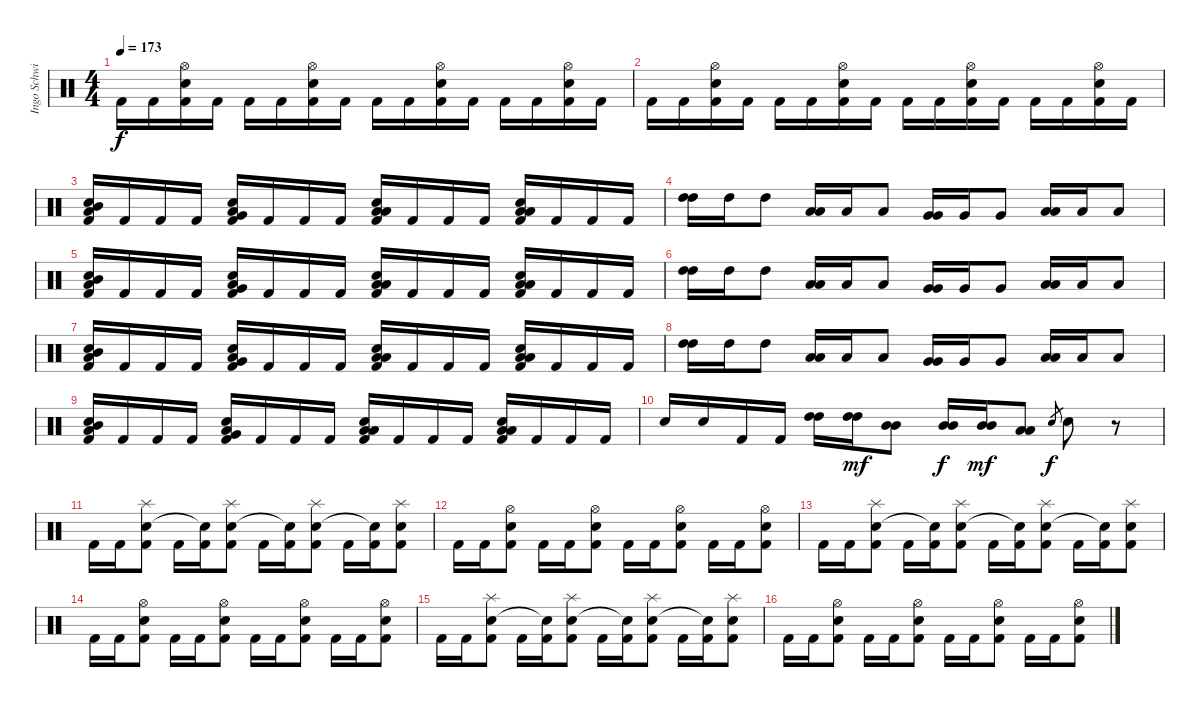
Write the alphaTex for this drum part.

\track ("Ingo Schwichtenberg" "Ingo Schwi") {instrument percussion}
\staff {score}
\articulation defaults
\ts (4 4)
\tempo 173
\clef neutral
\ks c "Kick (hit) 2".16{dy f} "Kick (hit) 2".16
("Kick (hit) 2" "Snare (hit) 2" "Hi-Hat (open)").16 "Kick (hit) 2".16 "Kick (hit) 2".16 "Kick (hit) 2".16 ("Kick (hit) 2" "Snare (hit) 2" "Hi-Hat (open)").16 "Kick (hit) 2".16 "Kick (hit) 2".16 "Kick (hit) 2".16 ("Kick (hit) 2" "Snare (hit) 2" "Hi-Hat (open)").16 "Kick (hit) 2".16 "Kick (hit) 2".16 "Kick (hit) 2".16 ("Kick (hit) 2" "Snare (hit) 2" "Hi-Hat (open)").16 "Kick (hit) 2".16 |
"Kick (hit) 2".16 "Kick (hit) 2".16 ("Kick (hit) 2" "Snare (hit) 2" "Hi-Hat (open)").16 "Kick (hit) 2".16 "Kick (hit) 2".16 "Kick (hit) 2".16 ("Kick (hit) 2" "Snare (hit) 2" "Hi-Hat (open)").16 "Kick (hit) 2".16 "Kick (hit) 2".16 "Kick (hit) 2".16 ("Kick (hit) 2" "Snare (hit) 2" "Hi-Hat (open)").16 "Kick (hit) 2".16 "Kick (hit) 2".16 "Kick (hit) 2".16 ("Kick (hit) 2" "Snare (hit) 2" "Hi-Hat (open)").16 "Kick (hit) 2".16 |
("Kick (hit) 2" "Low Tom (hit)" "Mid Tom (hit)" "Snare (hit) 2").16 "Kick (hit) 2".16 "Kick (hit) 2".16 "Kick (hit) 2".16 ("Kick (hit) 2" "Low Tom (hit)" "Very Low Tom (hit)" "Snare (hit) 2").16 "Kick (hit) 2".16 "Kick (hit) 2".16 "Kick (hit) 2".16 ("Kick (hit) 2" "Low Tom (hit)" "Low Floor Tom (hit)" "Snare (hit) 2").16 "Kick (hit) 2".16 "Kick (hit) 2".16 "Kick (hit) 2".16 ("Kick (hit) 2" "Low Tom (hit)" "Low Tom (hit)" "Snare (hit) 2").16 "Kick (hit) 2".16 "Kick (hit) 2".16 "Kick (hit) 2".16 |
("High Tom (hit)" "High Tom (hit)").16 "High Tom (hit)".16 "High Tom (hit)".8 ("Low Tom (hit)" "Low Tom (hit)").16 "Low Tom (hit)".16 "Low Tom (hit)".8 ("Very Low Tom (hit)" "Very Low Tom (hit)").16 "Very Low Tom (hit)".16 "Very Low Tom (hit)".8 ("Low Floor Tom (hit)" "Low Floor Tom (hit)").16 "Low Floor Tom (hit)".16 "Low Floor Tom (hit)".8 |
("Kick (hit) 2" "Low Tom (hit)" "Mid Tom (hit)" "Snare (hit) 2").16 "Kick (hit) 2".16 "Kick (hit) 2".16 "Kick (hit) 2".16 ("Kick (hit) 2" "Low Tom (hit)" "Very Low Tom (hit)" "Snare (hit) 2").16 "Kick (hit) 2".16 "Kick (hit) 2".16 "Kick (hit) 2".16 ("Kick (hit) 2" "Low Tom (hit)" "Low Floor Tom (hit)" "Snare (hit) 2").16 "Kick (hit) 2".16 "Kick (hit) 2".16 "Kick (hit) 2".16 ("Kick (hit) 2" "Low Tom (hit)" "Low Tom (hit)" "Snare (hit) 2").16 "Kick (hit) 2".16 "Kick (hit) 2".16 "Kick (hit) 2".16 |
("High Tom (hit)" "High Tom (hit)").16 "High Tom (hit)".16 "High Tom (hit)".8 ("Low Tom (hit)" "Low Tom (hit)").16 "Low Tom (hit)".16 "Low Tom (hit)".8 ("Very Low Tom (hit)" "Very Low Tom (hit)").16 "Very Low Tom (hit)".16 "Very Low Tom (hit)".8 ("Low Floor Tom (hit)" "Low Floor Tom (hit)").16 "Low Floor Tom (hit)".16 "Low Floor Tom (hit)".8 |
("Kick (hit) 2" "Low Tom (hit)" "Mid Tom (hit)" "Snare (hit) 2").16 "Kick (hit) 2".16 "Kick (hit) 2".16 "Kick (hit) 2".16 ("Kick (hit) 2" "Low Tom (hit)" "Very Low Tom (hit)" "Snare (hit) 2").16 "Kick (hit) 2".16 "Kick (hit) 2".16 "Kick (hit) 2".16 ("Kick (hit) 2" "Low Tom (hit)" "Low Floor Tom (hit)" "Snare (hit) 2").16 "Kick (hit) 2".16 "Kick (hit) 2".16 "Kick (hit) 2".16 ("Kick (hit) 2" "Low Tom (hit)" "Low Tom (hit)" "Snare (hit) 2").16 "Kick (hit) 2".16 "Kick (hit) 2".16 "Kick (hit) 2".16 |
("High Tom (hit)" "High Tom (hit)").16 "High Tom (hit)".16 "High Tom (hit)".8 ("Low Tom (hit)" "Low Tom (hit)").16 "Low Tom (hit)".16 "Low Tom (hit)".8 ("Very Low Tom (hit)" "Very Low Tom (hit)").16 "Very Low Tom (hit)".16 "Very Low Tom (hit)".8 ("Low Floor Tom (hit)" "Low Floor Tom (hit)").16 "Low Floor Tom (hit)".16 "Low Floor Tom (hit)".8 |
("Kick (hit) 2" "Low Tom (hit)" "Mid Tom (hit)" "Snare (hit) 2").16 "Kick (hit) 2".16 "Kick (hit) 2".16 "Kick (hit) 2".16 ("Kick (hit) 2" "Low Tom (hit)" "Very Low Tom (hit)" "Snare (hit) 2").16 "Kick (hit) 2".16 "Kick (hit) 2".16 "Kick (hit) 2".16 ("Kick (hit) 2" "Low Tom (hit)" "Low Floor Tom (hit)" "Snare (hit) 2").16 "Kick (hit) 2".16 "Kick (hit) 2".16 "Kick (hit) 2".16 ("Kick (hit) 2" "Low Tom (hit)" "Low Tom (hit)" "Snare (hit) 2").16 "Kick (hit) 2".16 "Kick (hit) 2".16 "Kick (hit) 2".16 |
"Snare (hit) 2".16 "Snare (hit) 2".16 "Kick (hit) 2".16 "Kick (hit) 2".16 ("High Tom (hit)" "High Tom (hit)").16 ("High Tom (hit)" "High Tom (hit)").16{dy mf} ("Mid Tom (hit)" "Mid Tom (hit)").8 ("Mid Tom (hit)" "Mid Tom (hit)").16{dy f} ("Mid Tom (hit)" "Mid Tom (hit)").16{dy mf} ("Low Tom (hit)" "Low Tom (hit)").8 "Snare (hit) 2".8{gr dy f} "Snare (hit) 2".8 r.8 |
"Kick (hit) 2".16 "Kick (hit) 2".16 ("Kick (hit) 2" "Snare (hit) 2" "Splash (hit)").8 "Kick (hit) 2".16 ("Kick (hit) 2" "Snare (hit)"{t}).16 ("Kick (hit) 2" "Snare (hit) 2" "Splash (hit)").8 "Kick (hit) 2".16 ("Kick (hit) 2" "Snare (hit)"{t}).16 ("Kick (hit) 2" "Snare (hit) 2" "Splash (hit)").8 "Kick (hit) 2".16 ("Kick (hit) 2" "Snare (hit)"{t}).16 ("Kick (hit) 2" "Snare (hit) 2" "Splash (hit)").8 |
"Kick (hit) 2".16 "Kick (hit) 2".16 ("Kick (hit) 2" "Snare (hit) 2" "Hi-Hat (open)").8 "Kick (hit) 2".16 "Kick (hit) 2".16 ("Kick (hit) 2" "Snare (hit) 2" "Hi-Hat (open)").8 "Kick (hit) 2".16 "Kick (hit) 2".16 ("Kick (hit) 2" "Snare (hit) 2" "Hi-Hat (open)").8 "Kick (hit) 2".16 "Kick (hit) 2".16 ("Kick (hit) 2" "Snare (hit) 2" "Hi-Hat (open)").8 |
"Kick (hit) 2".16 "Kick (hit) 2".16 ("Kick (hit) 2" "Snare (hit) 2" "Splash (hit)").8 "Kick (hit) 2".16 ("Kick (hit) 2" "Snare (hit)"{t}).16 ("Kick (hit) 2" "Snare (hit) 2" "Splash (hit)").8 "Kick (hit) 2".16 ("Kick (hit) 2" "Snare (hit)"{t}).16 ("Kick (hit) 2" "Snare (hit) 2" "Splash (hit)").8 "Kick (hit) 2".16 ("Kick (hit) 2" "Snare (hit)"{t}).16 ("Kick (hit) 2" "Snare (hit) 2" "Splash (hit)").8 |
"Kick (hit) 2".16 "Kick (hit) 2".16 ("Kick (hit) 2" "Snare (hit) 2" "Hi-Hat (open)").8 "Kick (hit) 2".16 "Kick (hit) 2".16 ("Kick (hit) 2" "Snare (hit) 2" "Hi-Hat (open)").8 "Kick (hit) 2".16 "Kick (hit) 2".16 ("Kick (hit) 2" "Snare (hit) 2" "Hi-Hat (open)").8 "Kick (hit) 2".16 "Kick (hit) 2".16 ("Kick (hit) 2" "Snare (hit) 2" "Hi-Hat (open)").8 |
"Kick (hit) 2".16 "Kick (hit) 2".16 ("Kick (hit) 2" "Snare (hit) 2" "Splash (hit)").8 "Kick (hit) 2".16 ("Kick (hit) 2" "Snare (hit)"{t}).16 ("Kick (hit) 2" "Snare (hit) 2" "Splash (hit)").8 "Kick (hit) 2".16 ("Kick (hit) 2" "Snare (hit)"{t}).16 ("Kick (hit) 2" "Snare (hit) 2" "Splash (hit)").8 "Kick (hit) 2".16 ("Kick (hit) 2" "Snare (hit)"{t}).16 ("Kick (hit) 2" "Snare (hit) 2" "Splash (hit)").8 |
"Kick (hit) 2".16 "Kick (hit) 2".16 ("Kick (hit) 2" "Snare (hit) 2" "Hi-Hat (open)").8 "Kick (hit) 2".16 "Kick (hit) 2".16 ("Kick (hit) 2" "Snare (hit) 2" "Hi-Hat (open)").8 "Kick (hit) 2".16 "Kick (hit) 2".16 ("Kick (hit) 2" "Snare (hit) 2" "Hi-Hat (open)").8 "Kick (hit) 2".16 "Kick (hit) 2".16 ("Kick (hit) 2" "Snare (hit) 2" "Hi-Hat (open)").8
